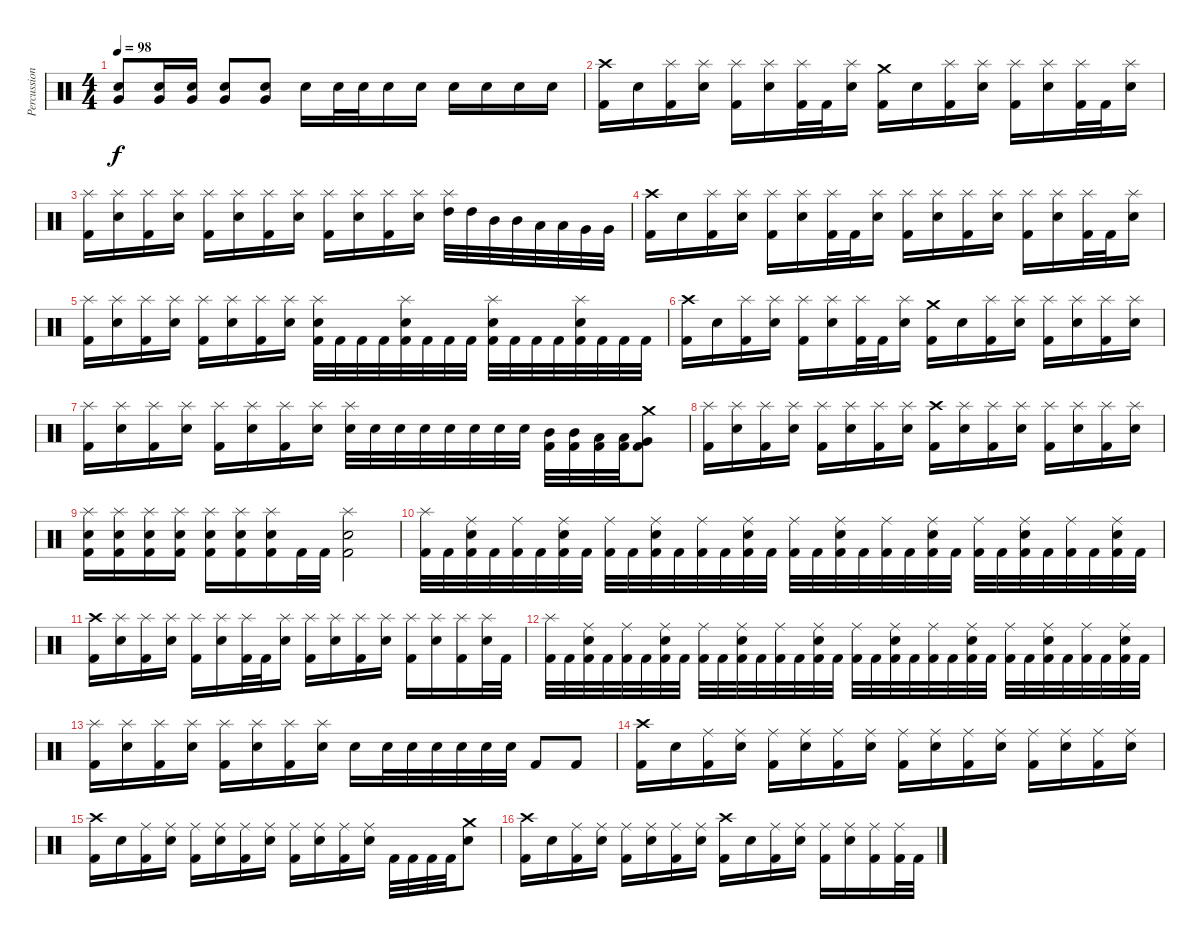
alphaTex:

\track ("Percussion" "Percussion") {instrument percussion}
\staff {score}
\articulation defaults
\ts (4 4)
\tempo 98
\clef neutral
\ks c
("Snare (hit) 2" "Very Low Tom (hit)").8{dy f} ("Snare (hit) 2" "Very Low Tom (hit)").16 ("Snare (hit) 2" "Very Low Tom (hit)").16 ("Snare (hit) 2" "Very Low Tom (hit)").8 ("Snare (hit) 2" "Very Low Tom (hit)").8 "Snare (hit) 2".16 "Snare (hit) 2".32 "Snare (hit) 2".32 "Snare (hit) 2".16 "Snare (hit) 2".16 "Snare (hit) 2".16 "Snare (hit) 2".16 "Snare (hit) 2".16 "Snare (hit) 2".16 |
("Crash high (hit)" "Kick (hit) 2").16 "Snare (hit) 2".16 ("Splash (hit)" "Kick (hit) 2").16 ("Splash (hit)" "Snare (hit) 2").16 ("Splash (hit)" "Kick (hit) 2").16 ("Splash (hit)" "Snare (hit) 2").16 ("Splash (hit)" "Kick (hit) 2").32 "Kick (hit) 2".32 ("Splash (hit)" "Snare (hit) 2").16 ("Crash medium (hit)" "Kick (hit) 2").16 "Snare (hit) 2".16 ("Splash (hit)" "Kick (hit) 2").16 ("Splash (hit)" "Snare (hit) 2").16 ("Splash (hit)" "Kick (hit) 2").16 ("Splash (hit)" "Snare (hit) 2").16 ("Splash (hit)" "Kick (hit) 2").32 "Kick (hit) 2".32 ("Splash (hit)" "Snare (hit) 2").16 |
("Splash (hit)" "Kick (hit) 2").16 ("Splash (hit)" "Snare (hit) 2").16 ("Splash (hit)" "Kick (hit) 2").16 ("Splash (hit)" "Snare (hit) 2").16 ("Splash (hit)" "Kick (hit) 2").16 ("Splash (hit)" "Snare (hit) 2").16 ("Splash (hit)" "Kick (hit) 2").16 ("Splash (hit)" "Snare (hit) 2").16 ("Splash (hit)" "Kick (hit) 2").16 ("Splash (hit)" "Snare (hit) 2").16 ("Splash (hit)" "Kick (hit) 2").16 ("Splash (hit)" "Snare (hit) 2").16 ("Splash (hit)" "High Tom (hit)").32 "High Tom (hit)".32 "Mid Tom (hit)".32 "Mid Tom (hit)".32 "Low Tom (hit)".32 "Low Tom (hit)".32 "Very Low Tom (hit)".32 "Very Low Tom (hit)".32 |
("Crash high (hit)" "Kick (hit) 2").16 "Snare (hit) 2".16 ("Splash (hit)" "Kick (hit) 2").16 ("Splash (hit)" "Snare (hit) 2").16 ("Splash (hit)" "Kick (hit) 2").16 ("Splash (hit)" "Snare (hit) 2").16 ("Splash (hit)" "Kick (hit) 2").32 "Kick (hit) 2".32 ("Splash (hit)" "Snare (hit) 2").16 ("Splash (hit)" "Kick (hit) 2").16 ("Splash (hit)" "Snare (hit) 2").16 ("Splash (hit)" "Kick (hit) 2").16 ("Splash (hit)" "Snare (hit) 2").16 ("Splash (hit)" "Kick (hit) 2").16 ("Splash (hit)" "Snare (hit) 2").16 ("Splash (hit)" "Kick (hit) 2").32 "Kick (hit) 2".32 ("Splash (hit)" "Snare (hit) 2").16 |
("Splash (hit)" "Kick (hit) 2").16 ("Splash (hit)" "Snare (hit) 2").16 ("Splash (hit)" "Kick (hit) 2").16 ("Splash (hit)" "Snare (hit) 2").16 ("Splash (hit)" "Kick (hit) 2").16 ("Splash (hit)" "Snare (hit) 2").16 ("Splash (hit)" "Kick (hit) 2").16 ("Splash (hit)" "Snare (hit) 2").16 ("Splash (hit)" "Snare (hit) 2" "Kick (hit) 2").32 "Kick (hit) 2".32 "Kick (hit) 2".32 "Kick (hit) 2".32 ("Splash (hit)" "Snare (hit) 2" "Kick (hit) 2").32 "Kick (hit) 2".32 "Kick (hit) 2".32 "Kick (hit) 2".32 ("Splash (hit)" "Snare (hit) 2" "Kick (hit) 2").32 "Kick (hit) 2".32 "Kick (hit) 2".32 "Kick (hit) 2".32 ("Splash (hit)" "Snare (hit) 2" "Kick (hit) 2").32 "Kick (hit) 2".32 "Kick (hit) 2".32 "Kick (hit) 2".32 |
("Crash high (hit)" "Kick (hit) 2").16 "Snare (hit) 2".16 ("Splash (hit)" "Kick (hit) 2").16 ("Splash (hit)" "Snare (hit) 2").16 ("Splash (hit)" "Kick (hit) 2").16 ("Splash (hit)" "Snare (hit) 2").16 ("Splash (hit)" "Kick (hit) 2").32 "Kick (hit) 2".32 ("Splash (hit)" "Snare (hit) 2").16 ("Crash medium (hit)" "Kick (hit) 2").16 "Snare (hit) 2".16 ("Splash (hit)" "Kick (hit) 2").16 ("Splash (hit)" "Snare (hit) 2").16 ("Splash (hit)" "Kick (hit) 2").16 ("Splash (hit)" "Snare (hit) 2").16 ("Splash (hit)" "Kick (hit) 2").16 ("Splash (hit)" "Snare (hit) 2").16 |
("Splash (hit)" "Kick (hit) 2").16 ("Splash (hit)" "Snare (hit) 2").16 ("Splash (hit)" "Kick (hit) 2").16 ("Splash (hit)" "Snare (hit) 2").16 ("Splash (hit)" "Kick (hit) 2").16 ("Splash (hit)" "Snare (hit) 2").16 ("Splash (hit)" "Kick (hit) 2").16 ("Splash (hit)" "Snare (hit) 2").16 ("Splash (hit)" "Snare (hit) 2").32 "Snare (hit) 2".32 "Snare (hit) 2".32 "Snare (hit) 2".32 "Snare (hit) 2".32 "Snare (hit) 2".32 "Snare (hit) 2".32 "Snare (hit) 2".32 ("Mid Tom (hit)" "Kick (hit) 2").32 ("Mid Tom (hit)" "Kick (hit) 2").32 ("Low Tom (hit)" "Kick (hit) 2").32 ("Low Tom (hit)" "Kick (hit) 2").32 ("Crash medium (hit)" "Very Low Tom (hit)" "Kick (hit) 2").8 |
("Splash (hit)" "Kick (hit) 2").16 ("Splash (hit)" "Snare (hit) 2").16 ("Splash (hit)" "Kick (hit) 2").16 ("Splash (hit)" "Snare (hit) 2").16 ("Splash (hit)" "Kick (hit) 2").16 ("Splash (hit)" "Snare (hit) 2").16 ("Splash (hit)" "Kick (hit) 2").16 ("Splash (hit)" "Snare (hit) 2").16 ("Crash high (hit)" "Kick (hit) 2").16 ("Splash (hit)" "Snare (hit) 2").16 ("Splash (hit)" "Kick (hit) 2").16 ("Splash (hit)" "Snare (hit) 2").16 ("Splash (hit)" "Kick (hit) 2").16 ("Splash (hit)" "Snare (hit) 2").16 ("Splash (hit)" "Kick (hit) 2").16 ("Splash (hit)" "Snare (hit) 2").16 |
("Splash (hit)" "Snare (hit) 2" "Kick (hit) 2").16 ("Splash (hit)" "Snare (hit) 2" "Kick (hit) 2").16 ("Splash (hit)" "Snare (hit) 2" "Kick (hit) 2").16 ("Splash (hit)" "Snare (hit) 2" "Kick (hit) 2").16 ("Splash (hit)" "Snare (hit) 2" "Kick (hit) 2").16 ("Splash (hit)" "Snare (hit) 2" "Kick (hit) 2").16 ("Splash (hit)" "Snare (hit) 2" "Kick (hit) 2").16 "Kick (hit) 2".32 "Kick (hit) 2".32 ("Splash (hit)" "Snare (hit) 2" "Kick (hit) 2").2 |
("Splash (hit)" "Kick (hit) 2").32 "Kick (hit) 2".32 ("Ride (middle)" "Snare (hit) 2" "Kick (hit) 2").32 "Kick (hit) 2".32 ("Ride (middle)" "Kick (hit) 2").32 "Kick (hit) 2".32 ("Ride (middle)" "Snare (hit) 2" "Kick (hit) 2").32 "Kick (hit) 2".32 ("Ride (middle)" "Kick (hit) 2").32 "Kick (hit) 2".32 ("Ride (middle)" "Snare (hit) 2" "Kick (hit) 2").32 "Kick (hit) 2".32 ("Ride (middle)" "Kick (hit) 2").32 "Kick (hit) 2".32 ("Ride (middle)" "Snare (hit) 2" "Kick (hit) 2").32 "Kick (hit) 2".32 ("Ride (middle)" "Kick (hit) 2").32 "Kick (hit) 2".32 ("Ride (middle)" "Snare (hit) 2" "Kick (hit) 2").32 "Kick (hit) 2".32 ("Ride (middle)" "Kick (hit) 2").32 "Kick (hit) 2".32 ("Ride (middle)" "Snare (hit) 2" "Kick (hit) 2").32 "Kick (hit) 2".32 ("Ride (middle)" "Kick (hit) 2").32 "Kick (hit) 2".32 ("Ride (middle)" "Snare (hit) 2" "Kick (hit) 2").32 "Kick (hit) 2".32 ("Ride (middle)" "Kick (hit) 2").32 "Kick (hit) 2".32 ("Ride (middle)" "Snare (hit) 2" "Kick (hit) 2").32 "Kick (hit) 2".32 |
("Crash high (hit)" "Kick (hit) 2").16 ("Splash (hit)" "Snare (hit) 2").16 ("Splash (hit)" "Kick (hit) 2").16 ("Splash (hit)" "Snare (hit) 2").16 ("Splash (hit)" "Kick (hit) 2").16 ("Splash (hit)" "Snare (hit) 2").16 ("Splash (hit)" "Kick (hit) 2").32 "Kick (hit) 2".32 ("Splash (hit)" "Snare (hit) 2").16 ("Splash (hit)" "Kick (hit) 2").16 ("Splash (hit)" "Snare (hit) 2").16 ("Splash (hit)" "Kick (hit) 2").16 ("Splash (hit)" "Snare (hit) 2").16 ("Splash (hit)" "Kick (hit) 2").16 ("Splash (hit)" "Snare (hit) 2").16 ("Splash (hit)" "Kick (hit) 2").16 ("Splash (hit)" "Snare (hit) 2").32 "Kick (hit) 2".32 |
("Splash (hit)" "Kick (hit) 2").32 "Kick (hit) 2".32 ("Ride (middle)" "Snare (hit) 2" "Kick (hit) 2").32 "Kick (hit) 2".32 ("Ride (middle)" "Kick (hit) 2").32 "Kick (hit) 2".32 ("Ride (middle)" "Snare (hit) 2" "Kick (hit) 2").32 "Kick (hit) 2".32 ("Ride (middle)" "Kick (hit) 2").32 "Kick (hit) 2".32 ("Ride (middle)" "Snare (hit) 2" "Kick (hit) 2").32 "Kick (hit) 2".32 ("Ride (middle)" "Kick (hit) 2").32 "Kick (hit) 2".32 ("Ride (middle)" "Snare (hit) 2" "Kick (hit) 2").32 "Kick (hit) 2".32 ("Ride (middle)" "Kick (hit) 2").32 "Kick (hit) 2".32 ("Ride (middle)" "Snare (hit) 2" "Kick (hit) 2").32 "Kick (hit) 2".32 ("Ride (middle)" "Kick (hit) 2").32 "Kick (hit) 2".32 ("Ride (middle)" "Snare (hit) 2" "Kick (hit) 2").32 "Kick (hit) 2".32 ("Ride (middle)" "Kick (hit) 2").32 "Kick (hit) 2".32 ("Ride (middle)" "Snare (hit) 2" "Kick (hit) 2").32 "Kick (hit) 2".32 ("Ride (middle)" "Kick (hit) 2").32 "Kick (hit) 2".32 ("Ride (middle)" "Snare (hit) 2" "Kick (hit) 2").32 "Kick (hit) 2".32 |
("Splash (hit)" "Kick (hit) 2").16 ("Splash (hit)" "Snare (hit) 2").16 ("Splash (hit)" "Kick (hit) 2").16 ("Splash (hit)" "Snare (hit) 2").16 ("Splash (hit)" "Kick (hit) 2").16 ("Splash (hit)" "Snare (hit) 2").16 ("Splash (hit)" "Kick (hit) 2").16 ("Splash (hit)" "Snare (hit) 2").16 "Snare (hit) 2".16 "Snare (hit) 2".32 "Snare (hit) 2".32 "Snare (hit) 2".32 "Snare (hit) 2".32 "Snare (hit) 2".32 "Snare (hit) 2".32 "Kick (hit) 2".8 "Kick (hit) 2".8 |
("Kick (hit) 2" "Crash high (hit)").16 "Snare (hit) 2".16 ("Kick (hit) 2" "Ride (middle)").16 ("Snare (hit) 2" "Ride (middle)").16 ("Kick (hit) 2" "Ride (middle)").16 ("Snare (hit) 2" "Ride (middle)").16 ("Kick (hit) 2" "Ride (middle)").16 ("Snare (hit) 2" "Ride (middle)").16 ("Kick (hit) 2" "Ride (middle)").16 ("Snare (hit) 2" "Ride (middle)").16 ("Kick (hit) 2" "Ride (middle)").16 ("Snare (hit) 2" "Ride (middle)").16 ("Kick (hit) 2" "Ride (middle)").16 ("Snare (hit) 2" "Ride (middle)").16 ("Kick (hit) 2" "Ride (middle)").16 ("Snare (hit) 2" "Ride (middle)").16 |
("Kick (hit) 2" "Crash high (hit)").16 "Snare (hit) 2".16 ("Kick (hit) 2" "Ride (middle)").16 ("Snare (hit) 2" "Ride (middle)").16 ("Kick (hit) 2" "Ride (middle)").16 ("Snare (hit) 2" "Ride (middle)").16 ("Kick (hit) 2" "Ride (middle)").16 ("Snare (hit) 2" "Ride (middle)").16 ("Kick (hit) 2" "Ride (middle)").16 ("Snare (hit) 2" "Ride (middle)").16 ("Kick (hit) 2" "Ride (middle)").16 ("Snare (hit) 2" "Ride (middle)").16 "Kick (hit) 2".32 "Kick (hit) 2".32 "Kick (hit) 2".32 "Kick (hit) 2".32 ("Snare (hit) 2" "Crash medium (hit)").8 |
("Kick (hit) 2" "Crash high (hit)").16 "Snare (hit) 2".16 ("Kick (hit) 2" "Ride (middle)").16 ("Snare (hit) 2" "Ride (middle)").16 ("Kick (hit) 2" "Ride (middle)").16 ("Snare (hit) 2" "Ride (middle)").16 ("Kick (hit) 2" "Ride (middle)").16 ("Snare (hit) 2" "Ride (middle)").16 ("Kick (hit) 2" "Crash high (hit)").16 "Snare (hit) 2".16 ("Kick (hit) 2" "Ride (middle)").16 ("Snare (hit) 2" "Ride (middle)").16 ("Kick (hit) 2" "Ride (middle)").16 ("Snare (hit) 2" "Ride (middle)").16 ("Kick (hit) 2" "Ride (middle)").16 ("Kick (hit) 2" "Ride (middle)").32 "Kick (hit) 2".32
